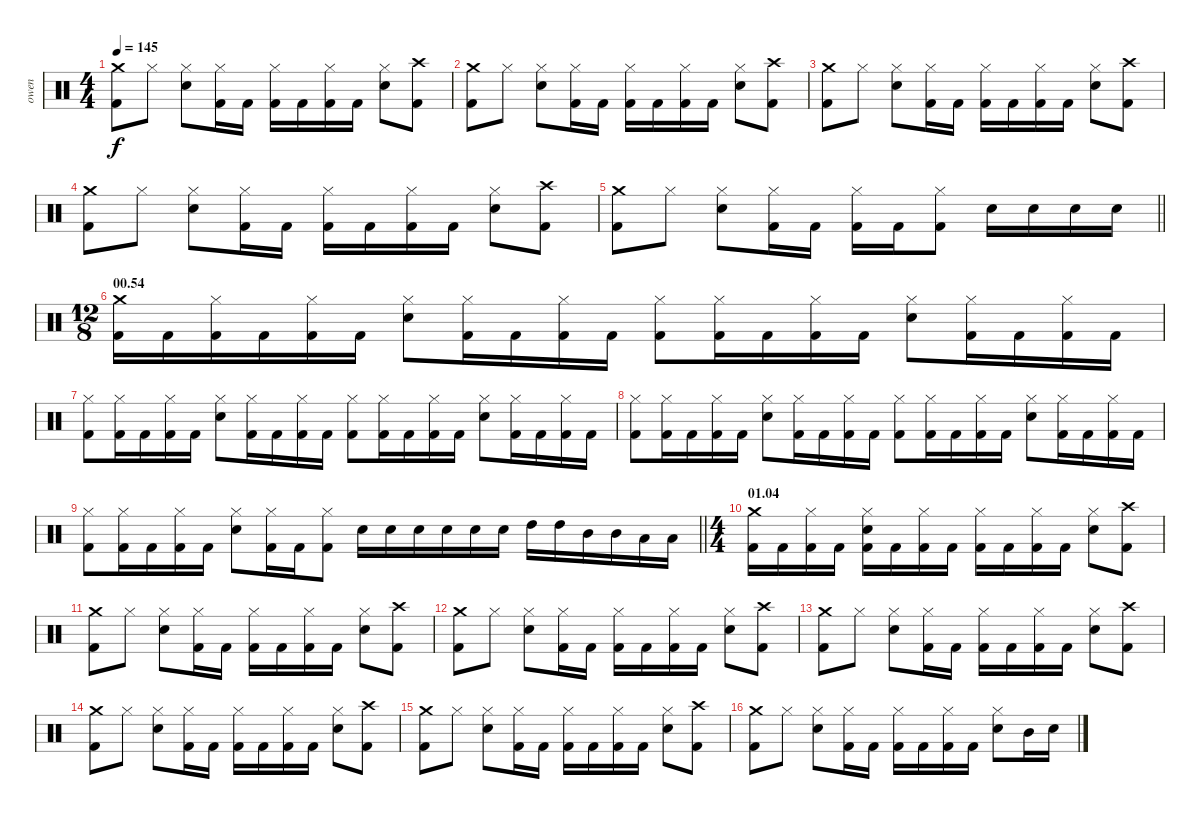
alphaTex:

\track ("owen" "owen") {instrument percussion}
\staff {score}
\articulation defaults
\ts (4 4)
\tempo 145
\clef neutral
\ks c
("Crash medium (hit)" "Kick (hit) 2").8{dy f} "Hi-Hat (closed)".8 ("Hi-Hat (closed)" "Snare (hit) 2").8 ("Hi-Hat (closed)" "Kick (hit) 2").16 "Kick (hit) 2".16 ("Hi-Hat (closed)" "Kick (hit) 2").16 "Kick (hit) 2".16 ("Hi-Hat (closed)" "Kick (hit) 2").16 "Kick (hit) 2".16 ("Hi-Hat (closed)" "Snare (hit) 2").8 ("Crash high (hit)" "Kick (hit) 2").8 |
("Crash medium (hit)" "Kick (hit) 2").8 "Hi-Hat (closed)".8 ("Hi-Hat (closed)" "Snare (hit) 2").8 ("Hi-Hat (closed)" "Kick (hit) 2").16 "Kick (hit) 2".16 ("Hi-Hat (closed)" "Kick (hit) 2").16 "Kick (hit) 2".16 ("Hi-Hat (closed)" "Kick (hit) 2").16 "Kick (hit) 2".16 ("Hi-Hat (closed)" "Snare (hit) 2").8 ("Crash high (hit)" "Kick (hit) 2").8 |
("Crash medium (hit)" "Kick (hit) 2").8 "Hi-Hat (closed)".8 ("Hi-Hat (closed)" "Snare (hit) 2").8 ("Hi-Hat (closed)" "Kick (hit) 2").16 "Kick (hit) 2".16 ("Hi-Hat (closed)" "Kick (hit) 2").16 "Kick (hit) 2".16 ("Hi-Hat (closed)" "Kick (hit) 2").16 "Kick (hit) 2".16 ("Hi-Hat (closed)" "Snare (hit) 2").8 ("Crash high (hit)" "Kick (hit) 2").8 |
("Crash medium (hit)" "Kick (hit) 2").8 "Hi-Hat (closed)".8 ("Hi-Hat (closed)" "Snare (hit) 2").8 ("Hi-Hat (closed)" "Kick (hit) 2").16 "Kick (hit) 2".16 ("Hi-Hat (closed)" "Kick (hit) 2").16 "Kick (hit) 2".16 ("Hi-Hat (closed)" "Kick (hit) 2").16 "Kick (hit) 2".16 ("Hi-Hat (closed)" "Snare (hit) 2").8 ("Crash high (hit)" "Kick (hit) 2").8 |
\barLineRight lightlight
("Crash medium (hit)" "Kick (hit) 2").8 "Hi-Hat (closed)".8 ("Hi-Hat (closed)" "Snare (hit) 2").8 ("Hi-Hat (closed)" "Kick (hit) 2").16 "Kick (hit) 2".16 ("Hi-Hat (closed)" "Kick (hit) 2").16 "Kick (hit) 2".16 ("Hi-Hat (closed)" "Kick (hit) 2").8 "Snare (hit) 2".16 "Snare (hit) 2".16 "Snare (hit) 2".16 "Snare (hit) 2".16 |
\ts (12 8)
\section ("" "00.54")
("Crash medium (hit)" "Kick (hit) 2").16 "Kick (hit) 2".16 ("Hi-Hat (closed)" "Kick (hit) 2").16 "Kick (hit) 2".16 ("Hi-Hat (closed)" "Kick (hit) 2").16 "Kick (hit) 2".16 ("Hi-Hat (closed)" "Snare (hit) 2").8 ("Hi-Hat (closed)" "Kick (hit) 2").16 "Kick (hit) 2".16 ("Hi-Hat (closed)" "Kick (hit) 2").16 "Kick (hit) 2".16 ("Hi-Hat (closed)" "Kick (hit) 2").8 ("Hi-Hat (closed)" "Kick (hit) 2").16 "Kick (hit) 2".16 ("Hi-Hat (closed)" "Kick (hit) 2").16 "Kick (hit) 2".16 ("Hi-Hat (closed)" "Snare (hit) 2").8 ("Hi-Hat (closed)" "Kick (hit) 2").16 "Kick (hit) 2".16 ("Hi-Hat (closed)" "Kick (hit) 2").16 "Kick (hit) 2".16 |
("Hi-Hat (closed)" "Kick (hit) 2").8 ("Hi-Hat (closed)" "Kick (hit) 2").16 "Kick (hit) 2".16 ("Hi-Hat (closed)" "Kick (hit) 2").16 "Kick (hit) 2".16 ("Hi-Hat (closed)" "Snare (hit) 2").8 ("Hi-Hat (closed)" "Kick (hit) 2").16 "Kick (hit) 2".16 ("Hi-Hat (closed)" "Kick (hit) 2").16 "Kick (hit) 2".16 ("Hi-Hat (closed)" "Kick (hit) 2").8 ("Hi-Hat (closed)" "Kick (hit) 2").16 "Kick (hit) 2".16 ("Hi-Hat (closed)" "Kick (hit) 2").16 "Kick (hit) 2".16 ("Hi-Hat (closed)" "Snare (hit) 2").8 ("Hi-Hat (closed)" "Kick (hit) 2").16 "Kick (hit) 2".16 ("Hi-Hat (closed)" "Kick (hit) 2").16 "Kick (hit) 2".16 |
("Hi-Hat (closed)" "Kick (hit) 2").8 ("Hi-Hat (closed)" "Kick (hit) 2").16 "Kick (hit) 2".16 ("Hi-Hat (closed)" "Kick (hit) 2").16 "Kick (hit) 2".16 ("Hi-Hat (closed)" "Snare (hit) 2").8 ("Hi-Hat (closed)" "Kick (hit) 2").16 "Kick (hit) 2".16 ("Hi-Hat (closed)" "Kick (hit) 2").16 "Kick (hit) 2".16 ("Hi-Hat (closed)" "Kick (hit) 2").8 ("Hi-Hat (closed)" "Kick (hit) 2").16 "Kick (hit) 2".16 ("Hi-Hat (closed)" "Kick (hit) 2").16 "Kick (hit) 2".16 ("Hi-Hat (closed)" "Snare (hit) 2").8 ("Hi-Hat (closed)" "Kick (hit) 2").16 "Kick (hit) 2".16 ("Hi-Hat (closed)" "Kick (hit) 2").16 "Kick (hit) 2".16 |
\barLineRight lightlight
("Hi-Hat (closed)" "Kick (hit) 2").8 ("Hi-Hat (closed)" "Kick (hit) 2").16 "Kick (hit) 2".16 ("Hi-Hat (closed)" "Kick (hit) 2").16 "Kick (hit) 2".16 ("Hi-Hat (closed)" "Snare (hit) 2").8 ("Hi-Hat (closed)" "Kick (hit) 2").16 "Kick (hit) 2".16 ("Hi-Hat (closed)" "Kick (hit) 2").8 "Snare (hit) 2".16 "Snare (hit) 2".16 "Snare (hit) 2".16 "Snare (hit) 2".16 "Snare (hit) 2".16 "Snare (hit) 2".16 "High Tom (hit)".16 "High Tom (hit)".16 "Mid Tom (hit)".16 "Mid Tom (hit)".16 "Low Tom (hit)".16 "Low Tom (hit)".16 |
\ts (4 4)
\section ("" "01.04")
("Crash medium (hit)" "Kick (hit) 2").16 "Kick (hit) 2".16 ("Hi-Hat (closed)" "Kick (hit) 2").16 "Kick (hit) 2".16 ("Hi-Hat (closed)" "Snare (hit) 2" "Kick (hit) 2").16 "Kick (hit) 2".16 ("Hi-Hat (closed)" "Kick (hit) 2").16 "Kick (hit) 2".16 ("Hi-Hat (closed)" "Kick (hit) 2").16 "Kick (hit) 2".16 ("Hi-Hat (closed)" "Kick (hit) 2").16 "Kick (hit) 2".16 ("Hi-Hat (closed)" "Snare (hit) 2").8 ("Crash high (hit)" "Kick (hit) 2").8 |
("Crash medium (hit)" "Kick (hit) 2").8 "Hi-Hat (closed)".8 ("Hi-Hat (closed)" "Snare (hit) 2").8 ("Hi-Hat (closed)" "Kick (hit) 2").16 "Kick (hit) 2".16 ("Hi-Hat (closed)" "Kick (hit) 2").16 "Kick (hit) 2".16 ("Hi-Hat (closed)" "Kick (hit) 2").16 "Kick (hit) 2".16 ("Hi-Hat (closed)" "Snare (hit) 2").8 ("Crash high (hit)" "Kick (hit) 2").8 |
("Crash medium (hit)" "Kick (hit) 2").8 "Hi-Hat (closed)".8 ("Hi-Hat (closed)" "Snare (hit) 2").8 ("Hi-Hat (closed)" "Kick (hit) 2").16 "Kick (hit) 2".16 ("Hi-Hat (closed)" "Kick (hit) 2").16 "Kick (hit) 2".16 ("Hi-Hat (closed)" "Kick (hit) 2").16 "Kick (hit) 2".16 ("Hi-Hat (closed)" "Snare (hit) 2").8 ("Crash high (hit)" "Kick (hit) 2").8 |
("Crash medium (hit)" "Kick (hit) 2").8 "Hi-Hat (closed)".8 ("Hi-Hat (closed)" "Snare (hit) 2").8 ("Hi-Hat (closed)" "Kick (hit) 2").16 "Kick (hit) 2".16 ("Hi-Hat (closed)" "Kick (hit) 2").16 "Kick (hit) 2".16 ("Hi-Hat (closed)" "Kick (hit) 2").16 "Kick (hit) 2".16 ("Hi-Hat (closed)" "Snare (hit) 2").8 ("Crash high (hit)" "Kick (hit) 2").8 |
("Crash medium (hit)" "Kick (hit) 2").8 "Hi-Hat (closed)".8 ("Hi-Hat (closed)" "Snare (hit) 2").8 ("Hi-Hat (closed)" "Kick (hit) 2").16 "Kick (hit) 2".16 ("Hi-Hat (closed)" "Kick (hit) 2").16 "Kick (hit) 2".16 ("Hi-Hat (closed)" "Kick (hit) 2").16 "Kick (hit) 2".16 ("Hi-Hat (closed)" "Snare (hit) 2").8 ("Crash high (hit)" "Kick (hit) 2").8 |
("Crash medium (hit)" "Kick (hit) 2").8 "Hi-Hat (closed)".8 ("Hi-Hat (closed)" "Snare (hit) 2").8 ("Hi-Hat (closed)" "Kick (hit) 2").16 "Kick (hit) 2".16 ("Hi-Hat (closed)" "Kick (hit) 2").16 "Kick (hit) 2".16 ("Hi-Hat (closed)" "Kick (hit) 2").16 "Kick (hit) 2".16 ("Hi-Hat (closed)" "Snare (hit) 2").8 ("Crash high (hit)" "Kick (hit) 2").8 |
("Crash medium (hit)" "Kick (hit) 2").8 "Hi-Hat (closed)".8 ("Hi-Hat (closed)" "Snare (hit) 2").8 ("Hi-Hat (closed)" "Kick (hit) 2").16 "Kick (hit) 2".16 ("Hi-Hat (closed)" "Kick (hit) 2").16 "Kick (hit) 2".16 ("Hi-Hat (closed)" "Kick (hit) 2").16 "Kick (hit) 2".16 ("Hi-Hat (closed)" "Snare (hit) 2").8 "Mid Tom (hit)".16 "Snare (hit) 2".16
